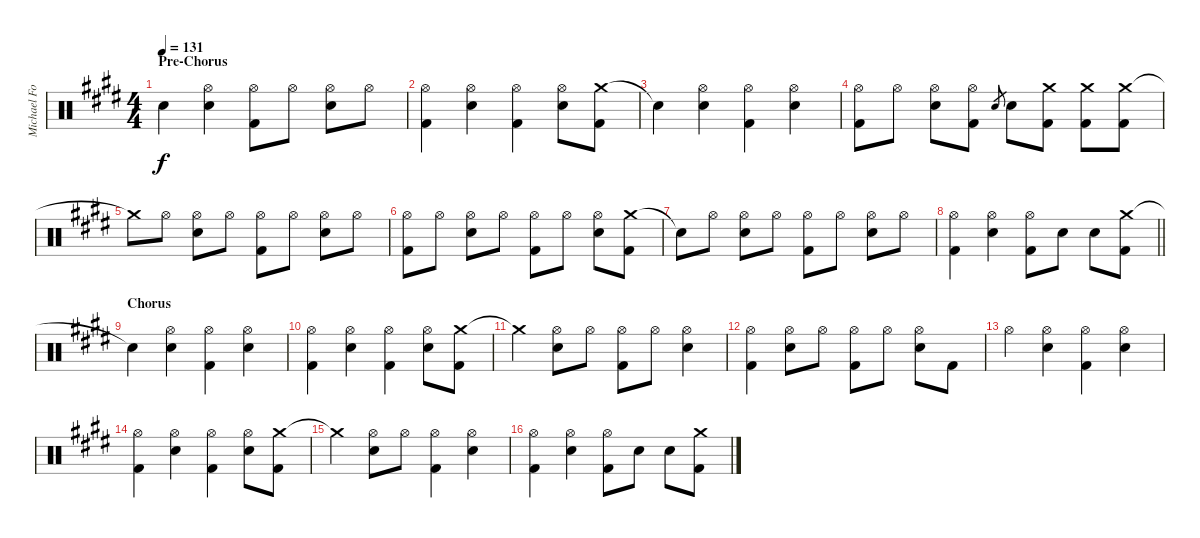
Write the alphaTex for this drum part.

\track ("Michael Foster Drums" "Michael Fo") {instrument percussion}
\staff {score}
\articulation defaults
\ts (4 4)
\section ("" "Pre-Chorus")
\tempo 131
\clef neutral
\ks e "Snare (hit)"{t}.4{dy f}
("Hi-Hat (open)" "Snare (hit) 2").4 ("Hi-Hat (open)" "Kick (hit) 2").8 "Hi-Hat (open)".8 ("Hi-Hat (open)" "Snare (hit) 2").8 "Hi-Hat (open)".8 |
("Hi-Hat (open)" "Kick (hit) 2").4 ("Hi-Hat (open)" "Snare (hit) 2").4 ("Hi-Hat (open)" "Kick (hit) 2").4 ("Hi-Hat (open)" "Snare (hit) 2").8 ("Crash medium (hit)" "Kick (hit) 2").8 |
"Snare (hit)"{t}.4 ("Hi-Hat (open)" "Snare (hit) 2").4 ("Hi-Hat (open)" "Kick (hit) 2").4 ("Hi-Hat (open)" "Snare (hit) 2").4 |
("Hi-Hat (open)" "Kick (hit) 2").8 "Hi-Hat (open)".8 ("Hi-Hat (open)" "Snare (hit) 2").8 ("Hi-Hat (open)" "Kick (hit) 2").8 "Snare (hit) 2".8{gr} "Snare (hit) 2".8 ("Crash medium (hit)" "Kick (hit) 2").8 ("Crash medium (hit)" "Kick (hit) 2").8 ("Crash medium (hit)" "Kick (hit) 2").8 |
"Crash medium (hit)"{t}.8 "Hi-Hat (open)".8 ("Hi-Hat (open)" "Snare (hit) 2").8 "Hi-Hat (open)".8 ("Hi-Hat (open)" "Kick (hit) 2").8 "Hi-Hat (open)".8 ("Hi-Hat (open)" "Snare (hit) 2").8 "Hi-Hat (open)".8 |
("Hi-Hat (open)" "Kick (hit) 2").8 "Hi-Hat (open)".8 ("Hi-Hat (open)" "Snare (hit) 2").8 "Hi-Hat (open)".8 ("Hi-Hat (open)" "Kick (hit) 2").8 "Hi-Hat (open)".8 ("Hi-Hat (open)" "Snare (hit) 2").8 ("Crash medium (hit)" "Kick (hit) 2").8 |
"Snare (hit)"{t}.8 "Hi-Hat (open)".8 ("Hi-Hat (open)" "Snare (hit) 2").8 "Hi-Hat (open)".8 ("Hi-Hat (open)" "Kick (hit) 2").8 "Hi-Hat (open)".8 ("Hi-Hat (open)" "Snare (hit) 2").8 "Hi-Hat (open)".8 |
\barLineRight lightlight
("Hi-Hat (open)" "Kick (hit) 2").4 ("Hi-Hat (open)" "Snare (hit) 2").4 ("Hi-Hat (open)" "Kick (hit) 2").8 "Snare (hit) 2".8 "Snare (hit) 2".8 ("Crash medium (hit)" "Kick (hit) 2").8 |
\section ("" "Chorus")
"Snare (hit)"{t}.4 ("Hi-Hat (open)" "Snare (hit) 2").4 ("Hi-Hat (open)" "Kick (hit) 2").4 ("Hi-Hat (open)" "Snare (hit) 2").4 |
("Hi-Hat (open)" "Kick (hit) 2").4 ("Hi-Hat (open)" "Snare (hit) 2").4 ("Hi-Hat (open)" "Kick (hit) 2").4 ("Hi-Hat (open)" "Snare (hit) 2").8 ("Crash medium (hit)" "Kick (hit) 2").8 |
"Crash medium (hit)"{t}.4 ("Hi-Hat (open)" "Snare (hit) 2").8 "Hi-Hat (open)".8 ("Hi-Hat (open)" "Kick (hit) 2").8 "Hi-Hat (open)".8 ("Hi-Hat (open)" "Snare (hit) 2").4 |
("Hi-Hat (open)" "Kick (hit) 2").4 ("Hi-Hat (open)" "Snare (hit) 2").8 "Hi-Hat (open)".8 ("Hi-Hat (open)" "Kick (hit) 2").8 "Hi-Hat (open)".8 ("Hi-Hat (open)" "Snare (hit) 2").8 "Kick (hit) 2".8 |
"Hi-Hat (open)".4 ("Hi-Hat (open)" "Snare (hit) 2").4 ("Hi-Hat (open)" "Kick (hit) 2").4 ("Hi-Hat (open)" "Snare (hit) 2").4 |
("Hi-Hat (open)" "Kick (hit) 2").4 ("Hi-Hat (open)" "Snare (hit) 2").4 ("Hi-Hat (open)" "Kick (hit) 2").4 ("Hi-Hat (open)" "Snare (hit) 2").8 ("Crash medium (hit)" "Kick (hit) 2").8 |
"Crash medium (hit)"{t}.4 ("Hi-Hat (open)" "Snare (hit) 2").8 "Hi-Hat (open)".8 ("Hi-Hat (open)" "Kick (hit) 2").4 ("Hi-Hat (open)" "Snare (hit) 2").4 |
("Hi-Hat (open)" "Kick (hit) 2").4 ("Hi-Hat (open)" "Snare (hit) 2").4 ("Hi-Hat (open)" "Kick (hit) 2").8 "Snare (hit) 2".8 "Snare (hit) 2".8 ("Crash medium (hit)" "Kick (hit) 2").8
